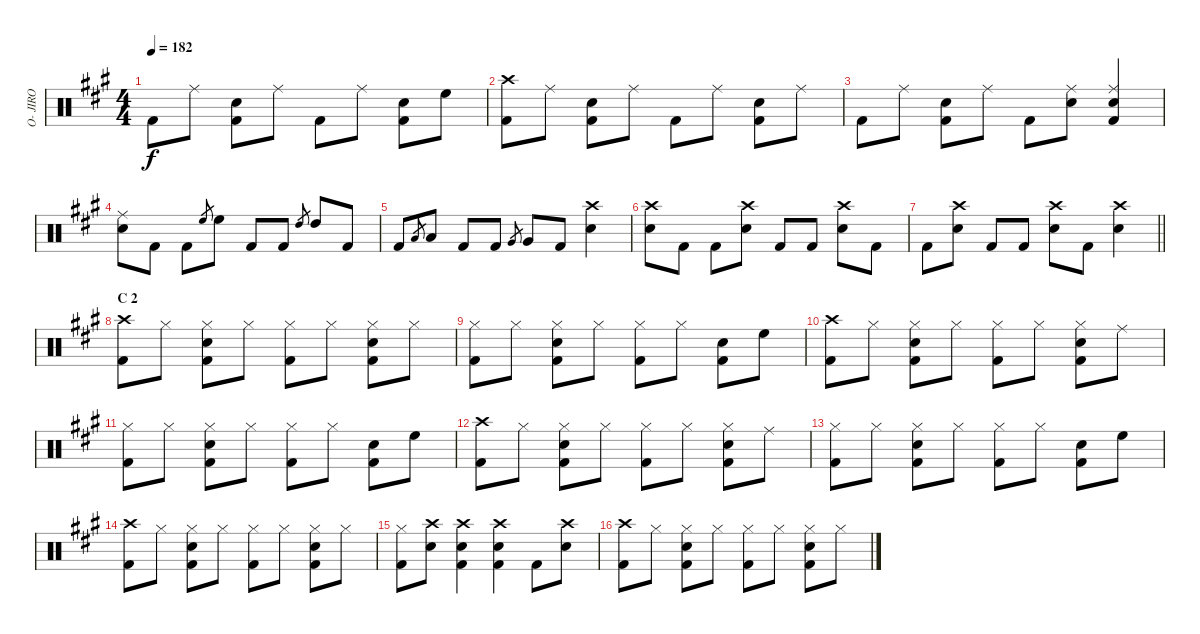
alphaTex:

\track ("O- JIRO" "O- JIRO") {instrument percussion}
\staff {score}
\articulation defaults
\ts (4 4)
\tempo 182
\clef neutral
\ks a "Kick (hit) 2".8{dy f} "Ride (middle)".8
("Snare (hit) 2" "Kick (hit) 2").8 "Ride (middle)".8 "Kick (hit) 2".8 "Ride (middle)".8 ("Snare (hit) 2" "Kick (hit) 2").8 "High Floor Tom (hit)".8 |
("Crash high (hit)" "Kick (hit) 2").8 "Ride (middle)".8 ("Snare (hit) 2" "Kick (hit) 2").8 "Ride (middle)".8 "Kick (hit) 2".8 "Ride (middle)".8 ("Snare (hit) 2" "Kick (hit) 2").8 "Ride (middle)".8 |
"Kick (hit) 2".8 "Ride (middle)".8 ("Snare (hit) 2" "Kick (hit) 2").8 "Ride (middle)".8 "Kick (hit) 2".8 ("Ride (middle)" "Snare (hit) 2").8 ("Snare (hit) 2" "Kick (hit) 2" "Ride (middle)").4 |
("Ride (middle)" "Snare (hit) 2").8 "Kick (hit) 2".8 "Kick (hit) 2".8 "High Floor Tom (hit)".8{gr} "High Floor Tom (hit)".8 "Kick (hit) 2".8 "Kick (hit) 2".8 "High Tom (hit)".8{gr} "High Tom (hit)".8 "Kick (hit) 2".8 |
"Kick (hit) 2".8 "Low Tom (hit)".8{gr} "Low Tom (hit)".8 "Kick (hit) 2".8 "Kick (hit) 2".8 "Very Low Tom (hit)".8{gr} "Very Low Tom (hit)".8 "Kick (hit) 2".8 ("Crash high (hit)" "Snare (hit) 2").4 |
("Crash high (hit)" "Snare (hit) 2").8 "Kick (hit) 2".8 "Kick (hit) 2".8 ("Crash high (hit)" "Snare (hit) 2").8 "Kick (hit) 2".8 "Kick (hit) 2".8 ("Crash high (hit)" "Snare (hit) 2").8 "Kick (hit) 2".8 |
\barLineRight lightlight "Kick (hit) 2".8
("Crash high (hit)" "Snare (hit) 2").8 "Kick (hit) 2".8 "Kick (hit) 2".8 ("Crash high (hit)" "Snare (hit) 2").8 "Kick (hit) 2".8 ("Crash high (hit)" "Snare (hit) 2").4 |
\section ("" "C 2")
("Crash high (hit)" "Kick (hit) 2").8 "Hi-Hat (closed)".8 ("Hi-Hat (closed)" "Snare (hit) 2" "Kick (hit) 2").8 "Hi-Hat (closed)".8 ("Hi-Hat (closed)" "Kick (hit) 2").8 "Hi-Hat (closed)".8 ("Hi-Hat (closed)" "Snare (hit) 2" "Kick (hit) 2").8 "Hi-Hat (closed)".8 |
("Hi-Hat (closed)" "Kick (hit) 2").8 "Hi-Hat (closed)".8 ("Hi-Hat (closed)" "Snare (hit) 2" "Kick (hit) 2").8 "Hi-Hat (closed)".8 ("Hi-Hat (closed)" "Kick (hit) 2").8 "Hi-Hat (closed)".8 ("Snare (hit) 2" "Kick (hit) 2").8 "High Floor Tom (hit)".8 |
("Crash high (hit)" "Kick (hit) 2").8 "Hi-Hat (closed)".8 ("Hi-Hat (closed)" "Snare (hit) 2" "Kick (hit) 2").8 "Hi-Hat (closed)".8 ("Hi-Hat (closed)" "Kick (hit) 2").8 "Hi-Hat (closed)".8 ("Hi-Hat (closed)" "Snare (hit) 2" "Kick (hit) 2").8 "Ride (middle)".8 |
("Hi-Hat (closed)" "Kick (hit) 2").8 "Hi-Hat (closed)".8 ("Hi-Hat (closed)" "Snare (hit) 2" "Kick (hit) 2").8 "Hi-Hat (closed)".8 ("Hi-Hat (closed)" "Kick (hit) 2").8 "Hi-Hat (closed)".8 ("Snare (hit) 2" "Kick (hit) 2").8 "High Floor Tom (hit)".8 |
("Crash high (hit)" "Kick (hit) 2").8 "Hi-Hat (closed)".8 ("Hi-Hat (closed)" "Snare (hit) 2" "Kick (hit) 2").8 "Hi-Hat (closed)".8 ("Hi-Hat (closed)" "Kick (hit) 2").8 "Hi-Hat (closed)".8 ("Hi-Hat (closed)" "Snare (hit) 2" "Kick (hit) 2").8 "Ride (middle)".8 |
("Hi-Hat (closed)" "Kick (hit) 2").8 "Hi-Hat (closed)".8 ("Hi-Hat (closed)" "Snare (hit) 2" "Kick (hit) 2").8 "Hi-Hat (closed)".8 ("Hi-Hat (closed)" "Kick (hit) 2").8 "Hi-Hat (closed)".8 ("Snare (hit) 2" "Kick (hit) 2").8 "High Floor Tom (hit)".8 |
("Crash high (hit)" "Kick (hit) 2").8 "Hi-Hat (closed)".8 ("Hi-Hat (closed)" "Snare (hit) 2" "Kick (hit) 2").8 "Hi-Hat (closed)".8 ("Hi-Hat (closed)" "Kick (hit) 2").8 "Hi-Hat (closed)".8 ("Hi-Hat (closed)" "Snare (hit) 2" "Kick (hit) 2").8 "Hi-Hat (closed)".8 |
("Hi-Hat (closed)" "Kick (hit) 2").8 ("Crash high (hit)" "Snare (hit) 2").8 ("Crash high (hit)" "Snare (hit) 2" "Kick (hit) 2").4 ("Crash high (hit)" "Snare (hit) 2" "Kick (hit) 2").4 "Kick (hit) 2".8 ("Crash high (hit)" "Snare (hit) 2").8 |
("Crash high (hit)" "Kick (hit) 2").8 "Hi-Hat (closed)".8 ("Hi-Hat (closed)" "Snare (hit) 2" "Kick (hit) 2").8 "Hi-Hat (closed)".8 ("Hi-Hat (closed)" "Kick (hit) 2").8 "Hi-Hat (closed)".8 ("Hi-Hat (closed)" "Snare (hit) 2" "Kick (hit) 2").8 "Hi-Hat (closed)".8
